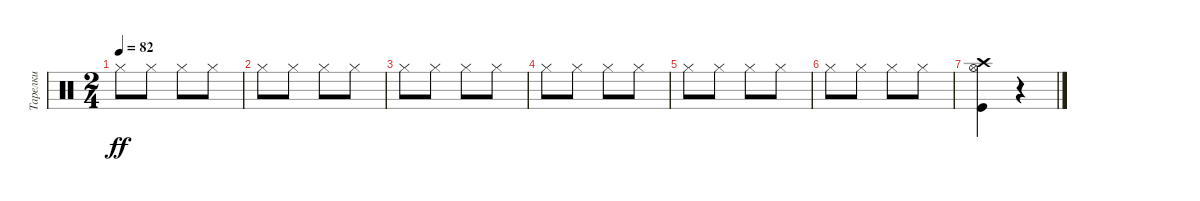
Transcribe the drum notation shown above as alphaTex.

\track ("Тарелки" "Тарелки") {instrument percussion}
\staff {score}
\articulation defaults
\ts (2 4)
\tempo 82
\clef neutral
\ks c "Hi-Hat (closed)".8{dy ff} "Hi-Hat (closed)".8 "Hi-Hat (closed)".8 "Hi-Hat (closed)".8
|
"Hi-Hat (closed)".8 "Hi-Hat (closed)".8 "Hi-Hat (closed)".8 "Hi-Hat (closed)".8 |
"Hi-Hat (closed)".8 "Hi-Hat (closed)".8 "Hi-Hat (closed)".8 "Hi-Hat (closed)".8 |
"Hi-Hat (closed)".8 "Hi-Hat (closed)".8 "Hi-Hat (closed)".8 "Hi-Hat (closed)".8 |
"Hi-Hat (closed)".8 "Hi-Hat (closed)".8 "Hi-Hat (closed)".8 "Hi-Hat (closed)".8 |
"Hi-Hat (closed)".8 "Hi-Hat (closed)".8 "Hi-Hat (closed)".8 "Hi-Hat (closed)".8 |
("Kick (hit)" "Hi-Hat (open)" "Crash high (hit)").4 r.4
